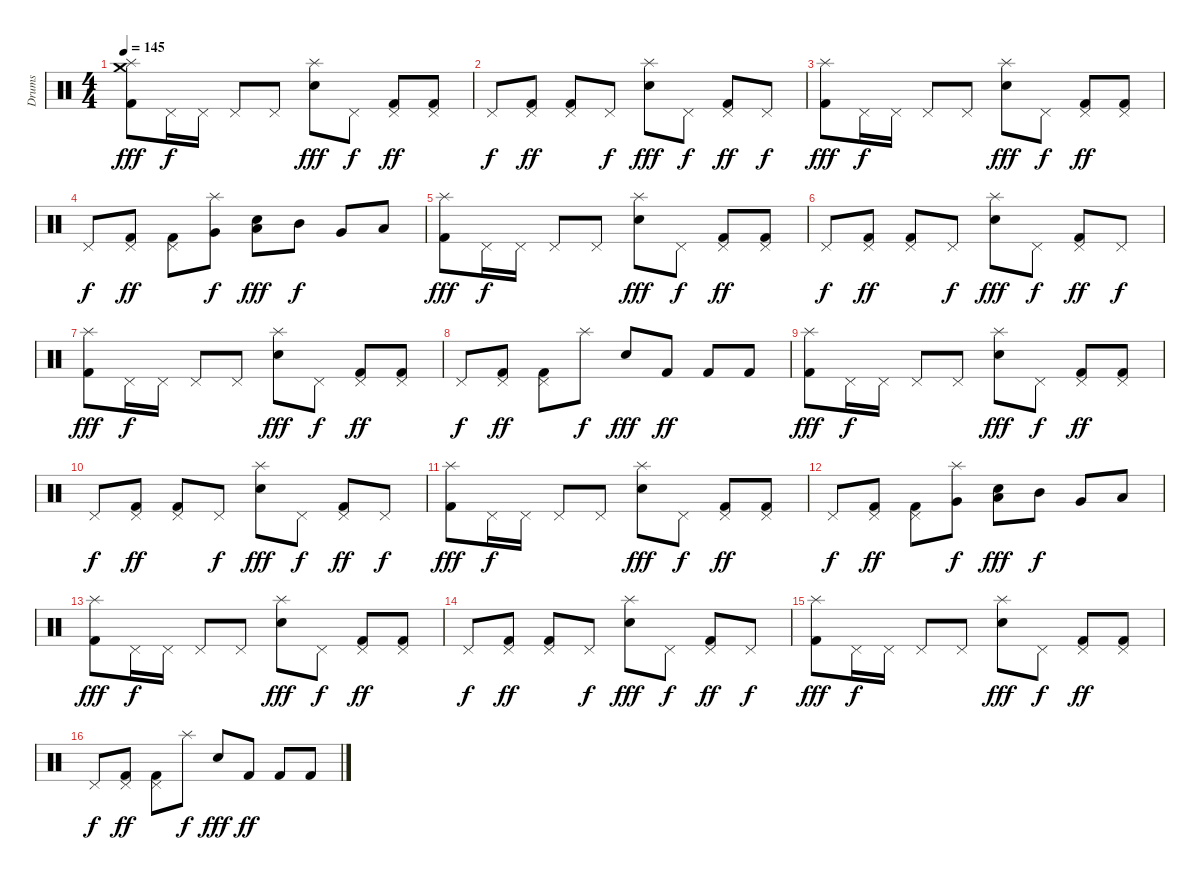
\track ("Drums" "Drums") {instrument percussion}
\staff {score}
\articulation defaults
\ts (4 4)
\tempo 145
\clef neutral
\ks c
("Crash medium (hit)" "Splash (hit)" "Kick (hit) 2").8{dy fff} "Pedal Hi-Hat (hit)".16{dy f} "Pedal Hi-Hat (hit)".16 "Pedal Hi-Hat (hit)".8 "Pedal Hi-Hat (hit)".8 ("Splash (hit)" "Snare (hit) 2").8{dy fff} "Pedal Hi-Hat (hit)".8{dy f} ("Pedal Hi-Hat (hit)" "Kick (hit) 2").8{dy ff} ("Pedal Hi-Hat (hit)" "Kick (hit) 2").8 |
"Pedal Hi-Hat (hit)".8{dy f} ("Pedal Hi-Hat (hit)" "Kick (hit) 2").8{dy ff} ("Pedal Hi-Hat (hit)" "Kick (hit) 2").8 "Pedal Hi-Hat (hit)".8{dy f} ("Splash (hit)" "Snare (hit) 2").8{dy fff} "Pedal Hi-Hat (hit)".8{dy f} ("Pedal Hi-Hat (hit)" "Kick (hit) 2").8{dy ff} "Pedal Hi-Hat (hit)".8{dy f} |
("Splash (hit)" "Kick (hit) 2").8{dy fff} "Pedal Hi-Hat (hit)".16{dy f} "Pedal Hi-Hat (hit)".16 "Pedal Hi-Hat (hit)".8 "Pedal Hi-Hat (hit)".8 ("Splash (hit)" "Snare (hit) 2").8{dy fff} "Pedal Hi-Hat (hit)".8{dy f} ("Pedal Hi-Hat (hit)" "Kick (hit) 2").8{dy ff} ("Pedal Hi-Hat (hit)" "Kick (hit) 2").8 |
"Pedal Hi-Hat (hit)".8{dy f} ("Pedal Hi-Hat (hit)" "Kick (hit) 2").8{dy ff} ("Pedal Hi-Hat (hit)" "Kick (hit) 2").8 ("Splash (hit)" "Very Low Tom (hit)").8{dy f} ("Low Tom (hit)" "Snare (hit) 2").8{dy fff} "Mid Tom (hit)".8{dy f} "Very Low Tom (hit)".8 "Low Tom (hit)".8 |
("Splash (hit)" "Kick (hit) 2").8{dy fff} "Pedal Hi-Hat (hit)".16{dy f} "Pedal Hi-Hat (hit)".16 "Pedal Hi-Hat (hit)".8 "Pedal Hi-Hat (hit)".8 ("Splash (hit)" "Snare (hit) 2").8{dy fff} "Pedal Hi-Hat (hit)".8{dy f} ("Pedal Hi-Hat (hit)" "Kick (hit) 2").8{dy ff} ("Pedal Hi-Hat (hit)" "Kick (hit) 2").8 |
"Pedal Hi-Hat (hit)".8{dy f} ("Pedal Hi-Hat (hit)" "Kick (hit) 2").8{dy ff} ("Pedal Hi-Hat (hit)" "Kick (hit) 2").8 "Pedal Hi-Hat (hit)".8{dy f} ("Splash (hit)" "Snare (hit) 2").8{dy fff} "Pedal Hi-Hat (hit)".8{dy f} ("Pedal Hi-Hat (hit)" "Kick (hit) 2").8{dy ff} "Pedal Hi-Hat (hit)".8{dy f} |
("Splash (hit)" "Kick (hit) 2").8{dy fff} "Pedal Hi-Hat (hit)".16{dy f} "Pedal Hi-Hat (hit)".16 "Pedal Hi-Hat (hit)".8 "Pedal Hi-Hat (hit)".8 ("Splash (hit)" "Snare (hit) 2").8{dy fff} "Pedal Hi-Hat (hit)".8{dy f} ("Pedal Hi-Hat (hit)" "Kick (hit) 2").8{dy ff} ("Pedal Hi-Hat (hit)" "Kick (hit) 2").8 |
"Pedal Hi-Hat (hit)".8{dy f} ("Pedal Hi-Hat (hit)" "Kick (hit) 2").8{dy ff} ("Pedal Hi-Hat (hit)" "Kick (hit) 2").8 "Splash (hit)".8{dy f} "Snare (hit) 2".8{dy fff} "Kick (hit) 2".8{dy ff} "Kick (hit) 2".8 "Kick (hit) 2".8 |
("Splash (hit)" "Kick (hit) 2").8{dy fff} "Pedal Hi-Hat (hit)".16{dy f} "Pedal Hi-Hat (hit)".16 "Pedal Hi-Hat (hit)".8 "Pedal Hi-Hat (hit)".8 ("Splash (hit)" "Snare (hit) 2").8{dy fff} "Pedal Hi-Hat (hit)".8{dy f} ("Pedal Hi-Hat (hit)" "Kick (hit) 2").8{dy ff} ("Pedal Hi-Hat (hit)" "Kick (hit) 2").8 |
"Pedal Hi-Hat (hit)".8{dy f} ("Pedal Hi-Hat (hit)" "Kick (hit) 2").8{dy ff} ("Pedal Hi-Hat (hit)" "Kick (hit) 2").8 "Pedal Hi-Hat (hit)".8{dy f} ("Splash (hit)" "Snare (hit) 2").8{dy fff} "Pedal Hi-Hat (hit)".8{dy f} ("Pedal Hi-Hat (hit)" "Kick (hit) 2").8{dy ff} "Pedal Hi-Hat (hit)".8{dy f} |
("Splash (hit)" "Kick (hit) 2").8{dy fff} "Pedal Hi-Hat (hit)".16{dy f} "Pedal Hi-Hat (hit)".16 "Pedal Hi-Hat (hit)".8 "Pedal Hi-Hat (hit)".8 ("Splash (hit)" "Snare (hit) 2").8{dy fff} "Pedal Hi-Hat (hit)".8{dy f} ("Pedal Hi-Hat (hit)" "Kick (hit) 2").8{dy ff} ("Pedal Hi-Hat (hit)" "Kick (hit) 2").8 |
"Pedal Hi-Hat (hit)".8{dy f} ("Pedal Hi-Hat (hit)" "Kick (hit) 2").8{dy ff} ("Pedal Hi-Hat (hit)" "Kick (hit) 2").8 ("Splash (hit)" "Very Low Tom (hit)").8{dy f} ("Low Tom (hit)" "Snare (hit) 2").8{dy fff} "Mid Tom (hit)".8{dy f} "Very Low Tom (hit)".8 "Low Tom (hit)".8 |
("Splash (hit)" "Kick (hit) 2").8{dy fff} "Pedal Hi-Hat (hit)".16{dy f} "Pedal Hi-Hat (hit)".16 "Pedal Hi-Hat (hit)".8 "Pedal Hi-Hat (hit)".8 ("Splash (hit)" "Snare (hit) 2").8{dy fff} "Pedal Hi-Hat (hit)".8{dy f} ("Pedal Hi-Hat (hit)" "Kick (hit) 2").8{dy ff} ("Pedal Hi-Hat (hit)" "Kick (hit) 2").8 |
"Pedal Hi-Hat (hit)".8{dy f} ("Pedal Hi-Hat (hit)" "Kick (hit) 2").8{dy ff} ("Pedal Hi-Hat (hit)" "Kick (hit) 2").8 "Pedal Hi-Hat (hit)".8{dy f} ("Splash (hit)" "Snare (hit) 2").8{dy fff} "Pedal Hi-Hat (hit)".8{dy f} ("Pedal Hi-Hat (hit)" "Kick (hit) 2").8{dy ff} "Pedal Hi-Hat (hit)".8{dy f} |
("Splash (hit)" "Kick (hit) 2").8{dy fff} "Pedal Hi-Hat (hit)".16{dy f} "Pedal Hi-Hat (hit)".16 "Pedal Hi-Hat (hit)".8 "Pedal Hi-Hat (hit)".8 ("Splash (hit)" "Snare (hit) 2").8{dy fff} "Pedal Hi-Hat (hit)".8{dy f} ("Pedal Hi-Hat (hit)" "Kick (hit) 2").8{dy ff} ("Pedal Hi-Hat (hit)" "Kick (hit) 2").8 |
"Pedal Hi-Hat (hit)".8{dy f} ("Pedal Hi-Hat (hit)" "Kick (hit) 2").8{dy ff} ("Pedal Hi-Hat (hit)" "Kick (hit) 2").8 "Splash (hit)".8{dy f} "Snare (hit) 2".8{dy fff} "Kick (hit) 2".8{dy ff} "Kick (hit) 2".8 "Kick (hit) 2".8
